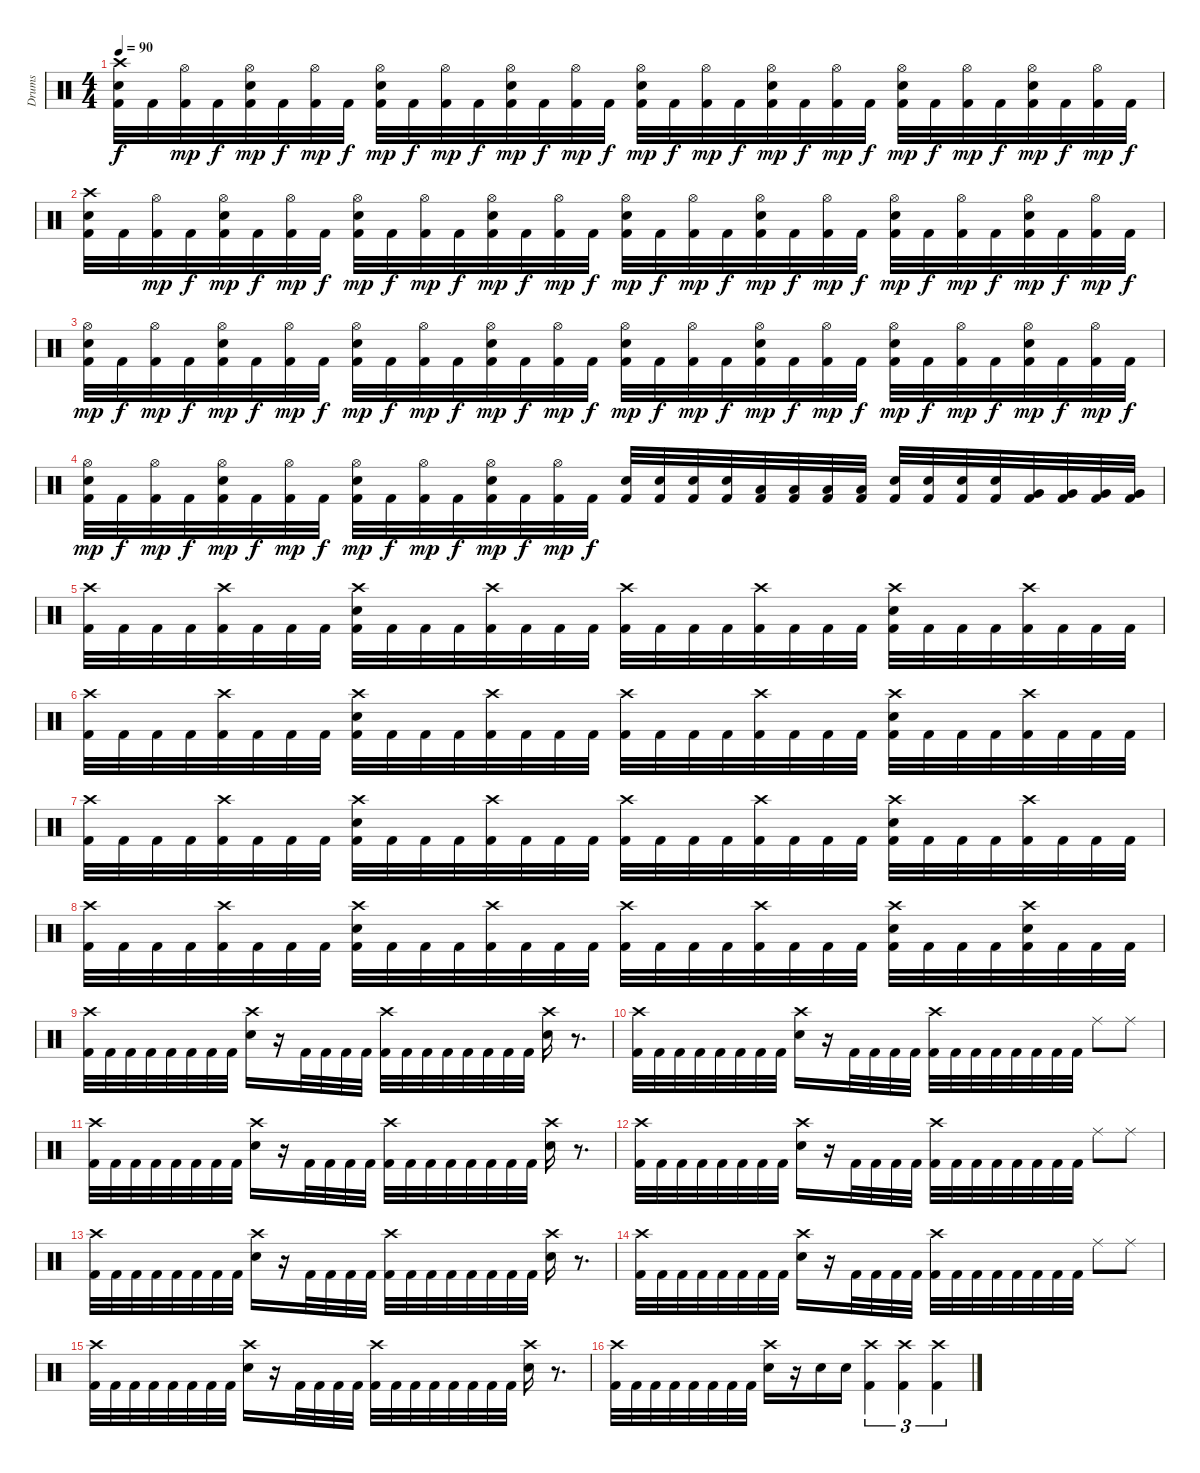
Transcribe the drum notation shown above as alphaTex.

\track ("Drums" "Drums") {instrument percussion}
\staff {score}
\articulation defaults
\ts (4 4)
\tempo 90
\clef neutral
\ks c
("Crash high (hit)" "Electric Snare (hit)" "Kick (hit) 2").32{dy f} "Kick (hit) 2".32 ("Hi-Hat (open)" "Kick (hit) 2").32{dy mp} "Kick (hit) 2".32{dy f} ("Hi-Hat (open)" "Electric Snare (hit)" "Kick (hit) 2").32{dy mp} "Kick (hit) 2".32{dy f} ("Hi-Hat (open)" "Kick (hit) 2").32{dy mp} "Kick (hit) 2".32{dy f} ("Hi-Hat (open)" "Electric Snare (hit)" "Kick (hit) 2").32{dy mp} "Kick (hit) 2".32{dy f} ("Hi-Hat (open)" "Kick (hit) 2").32{dy mp} "Kick (hit) 2".32{dy f} ("Hi-Hat (open)" "Electric Snare (hit)" "Kick (hit) 2").32{dy mp} "Kick (hit) 2".32{dy f} ("Hi-Hat (open)" "Kick (hit) 2").32{dy mp} "Kick (hit) 2".32{dy f} ("Hi-Hat (open)" "Electric Snare (hit)" "Kick (hit) 2").32{dy mp} "Kick (hit) 2".32{dy f} ("Hi-Hat (open)" "Kick (hit) 2").32{dy mp} "Kick (hit) 2".32{dy f} ("Hi-Hat (open)" "Electric Snare (hit)" "Kick (hit) 2").32{dy mp} "Kick (hit) 2".32{dy f} ("Hi-Hat (open)" "Kick (hit) 2").32{dy mp} "Kick (hit) 2".32{dy f} ("Hi-Hat (open)" "Electric Snare (hit)" "Kick (hit) 2").32{dy mp} "Kick (hit) 2".32{dy f} ("Hi-Hat (open)" "Kick (hit) 2").32{dy mp} "Kick (hit) 2".32{dy f} ("Hi-Hat (open)" "Electric Snare (hit)" "Kick (hit) 2").32{dy mp} "Kick (hit) 2".32{dy f} ("Hi-Hat (open)" "Kick (hit) 2").32{dy mp} "Kick (hit) 2".32{dy f} |
("Crash high (hit)" "Electric Snare (hit)" "Kick (hit) 2").32 "Kick (hit) 2".32 ("Hi-Hat (open)" "Kick (hit) 2").32{dy mp} "Kick (hit) 2".32{dy f} ("Hi-Hat (open)" "Electric Snare (hit)" "Kick (hit) 2").32{dy mp} "Kick (hit) 2".32{dy f} ("Hi-Hat (open)" "Kick (hit) 2").32{dy mp} "Kick (hit) 2".32{dy f} ("Hi-Hat (open)" "Electric Snare (hit)" "Kick (hit) 2").32{dy mp} "Kick (hit) 2".32{dy f} ("Hi-Hat (open)" "Kick (hit) 2").32{dy mp} "Kick (hit) 2".32{dy f} ("Hi-Hat (open)" "Electric Snare (hit)" "Kick (hit) 2").32{dy mp} "Kick (hit) 2".32{dy f} ("Hi-Hat (open)" "Kick (hit) 2").32{dy mp} "Kick (hit) 2".32{dy f} ("Hi-Hat (open)" "Electric Snare (hit)" "Kick (hit) 2").32{dy mp} "Kick (hit) 2".32{dy f} ("Hi-Hat (open)" "Kick (hit) 2").32{dy mp} "Kick (hit) 2".32{dy f} ("Hi-Hat (open)" "Electric Snare (hit)" "Kick (hit) 2").32{dy mp} "Kick (hit) 2".32{dy f} ("Hi-Hat (open)" "Kick (hit) 2").32{dy mp} "Kick (hit) 2".32{dy f} ("Hi-Hat (open)" "Electric Snare (hit)" "Kick (hit) 2").32{dy mp} "Kick (hit) 2".32{dy f} ("Hi-Hat (open)" "Kick (hit) 2").32{dy mp} "Kick (hit) 2".32{dy f} ("Hi-Hat (open)" "Electric Snare (hit)" "Kick (hit) 2").32{dy mp} "Kick (hit) 2".32{dy f} ("Hi-Hat (open)" "Kick (hit) 2").32{dy mp} "Kick (hit) 2".32{dy f} |
("Hi-Hat (open)" "Electric Snare (hit)" "Kick (hit) 2").32{dy mp} "Kick (hit) 2".32{dy f} ("Hi-Hat (open)" "Kick (hit) 2").32{dy mp} "Kick (hit) 2".32{dy f} ("Hi-Hat (open)" "Electric Snare (hit)" "Kick (hit) 2").32{dy mp} "Kick (hit) 2".32{dy f} ("Hi-Hat (open)" "Kick (hit) 2").32{dy mp} "Kick (hit) 2".32{dy f} ("Hi-Hat (open)" "Electric Snare (hit)" "Kick (hit) 2").32{dy mp} "Kick (hit) 2".32{dy f} ("Hi-Hat (open)" "Kick (hit) 2").32{dy mp} "Kick (hit) 2".32{dy f} ("Hi-Hat (open)" "Electric Snare (hit)" "Kick (hit) 2").32{dy mp} "Kick (hit) 2".32{dy f} ("Hi-Hat (open)" "Kick (hit) 2").32{dy mp} "Kick (hit) 2".32{dy f} ("Hi-Hat (open)" "Electric Snare (hit)" "Kick (hit) 2").32{dy mp} "Kick (hit) 2".32{dy f} ("Hi-Hat (open)" "Kick (hit) 2").32{dy mp} "Kick (hit) 2".32{dy f} ("Hi-Hat (open)" "Electric Snare (hit)" "Kick (hit) 2").32{dy mp} "Kick (hit) 2".32{dy f} ("Hi-Hat (open)" "Kick (hit) 2").32{dy mp} "Kick (hit) 2".32{dy f} ("Hi-Hat (open)" "Electric Snare (hit)" "Kick (hit) 2").32{dy mp} "Kick (hit) 2".32{dy f} ("Hi-Hat (open)" "Kick (hit) 2").32{dy mp} "Kick (hit) 2".32{dy f} ("Hi-Hat (open)" "Electric Snare (hit)" "Kick (hit) 2").32{dy mp} "Kick (hit) 2".32{dy f} ("Hi-Hat (open)" "Kick (hit) 2").32{dy mp} "Kick (hit) 2".32{dy f} |
("Hi-Hat (open)" "Electric Snare (hit)" "Kick (hit) 2").32{dy mp} "Kick (hit) 2".32{dy f} ("Hi-Hat (open)" "Kick (hit) 2").32{dy mp} "Kick (hit) 2".32{dy f} ("Hi-Hat (open)" "Electric Snare (hit)" "Kick (hit) 2").32{dy mp} "Kick (hit) 2".32{dy f} ("Hi-Hat (open)" "Kick (hit) 2").32{dy mp} "Kick (hit) 2".32{dy f} ("Hi-Hat (open)" "Electric Snare (hit)" "Kick (hit) 2").32{dy mp} "Kick (hit) 2".32{dy f} ("Hi-Hat (open)" "Kick (hit) 2").32{dy mp} "Kick (hit) 2".32{dy f} ("Hi-Hat (open)" "Electric Snare (hit)" "Kick (hit) 2").32{dy mp} "Kick (hit) 2".32{dy f} ("Hi-Hat (open)" "Kick (hit) 2").32{dy mp} "Kick (hit) 2".32{dy f} ("Electric Snare (hit)" "Kick (hit) 2").32 ("Electric Snare (hit)" "Kick (hit) 2").32 ("Electric Snare (hit)" "Kick (hit) 2").32 ("Electric Snare (hit)" "Kick (hit) 2").32 ("Low Tom (hit)" "Kick (hit) 2").32 ("Low Tom (hit)" "Kick (hit) 2").32 ("Low Tom (hit)" "Kick (hit) 2").32 ("Low Tom (hit)" "Kick (hit) 2").32 ("Electric Snare (hit)" "Kick (hit) 2").32 ("Electric Snare (hit)" "Kick (hit) 2").32 ("Electric Snare (hit)" "Kick (hit) 2").32 ("Electric Snare (hit)" "Kick (hit) 2").32 ("Very Low Tom (hit)" "Kick (hit) 2").32 ("Very Low Tom (hit)" "Kick (hit) 2").32 ("Very Low Tom (hit)" "Kick (hit) 2").32 ("Very Low Tom (hit)" "Kick (hit) 2").32 |
("Crash high (hit)" "Kick (hit) 2").32 "Kick (hit) 2".32 "Kick (hit) 2".32 "Kick (hit) 2".32 ("Crash high (hit)" "Kick (hit) 2").32 "Kick (hit) 2".32 "Kick (hit) 2".32 "Kick (hit) 2".32 ("Crash high (hit)" "Electric Snare (hit)" "Kick (hit) 2").32 "Kick (hit) 2".32 "Kick (hit) 2".32 "Kick (hit) 2".32 ("Crash high (hit)" "Kick (hit) 2").32 "Kick (hit) 2".32 "Kick (hit) 2".32 "Kick (hit) 2".32 ("Crash high (hit)" "Kick (hit) 2").32 "Kick (hit) 2".32 "Kick (hit) 2".32 "Kick (hit) 2".32 ("Crash high (hit)" "Kick (hit) 2").32 "Kick (hit) 2".32 "Kick (hit) 2".32 "Kick (hit) 2".32 ("Crash high (hit)" "Electric Snare (hit)" "Kick (hit) 2").32 "Kick (hit) 2".32 "Kick (hit) 2".32 "Kick (hit) 2".32 ("Crash high (hit)" "Kick (hit) 2").32 "Kick (hit) 2".32 "Kick (hit) 2".32 "Kick (hit) 2".32 |
("Crash high (hit)" "Kick (hit) 2").32 "Kick (hit) 2".32 "Kick (hit) 2".32 "Kick (hit) 2".32 ("Crash high (hit)" "Kick (hit) 2").32 "Kick (hit) 2".32 "Kick (hit) 2".32 "Kick (hit) 2".32 ("Crash high (hit)" "Electric Snare (hit)" "Kick (hit) 2").32 "Kick (hit) 2".32 "Kick (hit) 2".32 "Kick (hit) 2".32 ("Crash high (hit)" "Kick (hit) 2").32 "Kick (hit) 2".32 "Kick (hit) 2".32 "Kick (hit) 2".32 ("Crash high (hit)" "Kick (hit) 2").32 "Kick (hit) 2".32 "Kick (hit) 2".32 "Kick (hit) 2".32 ("Crash high (hit)" "Kick (hit) 2").32 "Kick (hit) 2".32 "Kick (hit) 2".32 "Kick (hit) 2".32 ("Crash high (hit)" "Electric Snare (hit)" "Kick (hit) 2").32 "Kick (hit) 2".32 "Kick (hit) 2".32 "Kick (hit) 2".32 ("Crash high (hit)" "Kick (hit) 2").32 "Kick (hit) 2".32 "Kick (hit) 2".32 "Kick (hit) 2".32 |
("Crash high (hit)" "Kick (hit) 2").32 "Kick (hit) 2".32 "Kick (hit) 2".32 "Kick (hit) 2".32 ("Crash high (hit)" "Kick (hit) 2").32 "Kick (hit) 2".32 "Kick (hit) 2".32 "Kick (hit) 2".32 ("Crash high (hit)" "Electric Snare (hit)" "Kick (hit) 2").32 "Kick (hit) 2".32 "Kick (hit) 2".32 "Kick (hit) 2".32 ("Crash high (hit)" "Kick (hit) 2").32 "Kick (hit) 2".32 "Kick (hit) 2".32 "Kick (hit) 2".32 ("Crash high (hit)" "Kick (hit) 2").32 "Kick (hit) 2".32 "Kick (hit) 2".32 "Kick (hit) 2".32 ("Crash high (hit)" "Kick (hit) 2").32 "Kick (hit) 2".32 "Kick (hit) 2".32 "Kick (hit) 2".32 ("Crash high (hit)" "Electric Snare (hit)" "Kick (hit) 2").32 "Kick (hit) 2".32 "Kick (hit) 2".32 "Kick (hit) 2".32 ("Crash high (hit)" "Kick (hit) 2").32 "Kick (hit) 2".32 "Kick (hit) 2".32 "Kick (hit) 2".32 |
("Crash high (hit)" "Kick (hit) 2").32 "Kick (hit) 2".32 "Kick (hit) 2".32 "Kick (hit) 2".32 ("Crash high (hit)" "Kick (hit) 2").32 "Kick (hit) 2".32 "Kick (hit) 2".32 "Kick (hit) 2".32 ("Crash high (hit)" "Electric Snare (hit)" "Kick (hit) 2").32 "Kick (hit) 2".32 "Kick (hit) 2".32 "Kick (hit) 2".32 ("Crash high (hit)" "Kick (hit) 2").32 "Kick (hit) 2".32 "Kick (hit) 2".32 "Kick (hit) 2".32 ("Crash high (hit)" "Kick (hit) 2").32 "Kick (hit) 2".32 "Kick (hit) 2".32 "Kick (hit) 2".32 ("Crash high (hit)" "Kick (hit) 2").32 "Kick (hit) 2".32 "Kick (hit) 2".32 "Kick (hit) 2".32 ("Crash high (hit)" "Electric Snare (hit)" "Kick (hit) 2").32 "Kick (hit) 2".32 "Kick (hit) 2".32 "Kick (hit) 2".32 ("Crash high (hit)" "Electric Snare (hit)" "Kick (hit) 2").32 "Kick (hit) 2".32 "Kick (hit) 2".32 "Kick (hit) 2".32 |
("Crash high (hit)" "Kick (hit) 2").32 "Kick (hit) 2".32 "Kick (hit) 2".32 "Kick (hit) 2".32 "Kick (hit) 2".32 "Kick (hit) 2".32 "Kick (hit) 2".32 "Kick (hit) 2".32 ("Crash high (hit)" "Electric Snare (hit)").16 r.16 "Kick (hit) 2".32 "Kick (hit) 2".32 "Kick (hit) 2".32 "Kick (hit) 2".32 ("Crash high (hit)" "Kick (hit) 2").32 "Kick (hit) 2".32 "Kick (hit) 2".32 "Kick (hit) 2".32 "Kick (hit) 2".32 "Kick (hit) 2".32 "Kick (hit) 2".32 "Kick (hit) 2".32 ("Crash high (hit)" "Electric Snare (hit)").16 r.8{d} |
("Crash high (hit)" "Kick (hit) 2").32 "Kick (hit) 2".32 "Kick (hit) 2".32 "Kick (hit) 2".32 "Kick (hit) 2".32 "Kick (hit) 2".32 "Kick (hit) 2".32 "Kick (hit) 2".32 ("Crash high (hit)" "Electric Snare (hit)").16 r.16 "Kick (hit) 2".32 "Kick (hit) 2".32 "Kick (hit) 2".32 "Kick (hit) 2".32 ("Crash high (hit)" "Kick (hit) 2").32 "Kick (hit) 2".32 "Kick (hit) 2".32 "Kick (hit) 2".32 "Kick (hit) 2".32 "Kick (hit) 2".32 "Kick (hit) 2".32 "Kick (hit) 2".32 "Ride (middle)".8 "Ride (middle)".8 |
("Crash high (hit)" "Kick (hit) 2").32 "Kick (hit) 2".32 "Kick (hit) 2".32 "Kick (hit) 2".32 "Kick (hit) 2".32 "Kick (hit) 2".32 "Kick (hit) 2".32 "Kick (hit) 2".32 ("Crash high (hit)" "Electric Snare (hit)").16 r.16 "Kick (hit) 2".32 "Kick (hit) 2".32 "Kick (hit) 2".32 "Kick (hit) 2".32 ("Crash high (hit)" "Kick (hit) 2").32 "Kick (hit) 2".32 "Kick (hit) 2".32 "Kick (hit) 2".32 "Kick (hit) 2".32 "Kick (hit) 2".32 "Kick (hit) 2".32 "Kick (hit) 2".32 ("Crash high (hit)" "Electric Snare (hit)").16 r.8{d} |
("Crash high (hit)" "Kick (hit) 2").32 "Kick (hit) 2".32 "Kick (hit) 2".32 "Kick (hit) 2".32 "Kick (hit) 2".32 "Kick (hit) 2".32 "Kick (hit) 2".32 "Kick (hit) 2".32 ("Crash high (hit)" "Electric Snare (hit)").16 r.16 "Kick (hit) 2".32 "Kick (hit) 2".32 "Kick (hit) 2".32 "Kick (hit) 2".32 ("Crash high (hit)" "Kick (hit) 2").32 "Kick (hit) 2".32 "Kick (hit) 2".32 "Kick (hit) 2".32 "Kick (hit) 2".32 "Kick (hit) 2".32 "Kick (hit) 2".32 "Kick (hit) 2".32 "Ride (middle)".8 "Ride (middle)".8 |
("Crash high (hit)" "Kick (hit) 2").32 "Kick (hit) 2".32 "Kick (hit) 2".32 "Kick (hit) 2".32 "Kick (hit) 2".32 "Kick (hit) 2".32 "Kick (hit) 2".32 "Kick (hit) 2".32 ("Crash high (hit)" "Electric Snare (hit)").16 r.16 "Kick (hit) 2".32 "Kick (hit) 2".32 "Kick (hit) 2".32 "Kick (hit) 2".32 ("Crash high (hit)" "Kick (hit) 2").32 "Kick (hit) 2".32 "Kick (hit) 2".32 "Kick (hit) 2".32 "Kick (hit) 2".32 "Kick (hit) 2".32 "Kick (hit) 2".32 "Kick (hit) 2".32 ("Crash high (hit)" "Electric Snare (hit)").16 r.8{d} |
("Crash high (hit)" "Kick (hit) 2").32 "Kick (hit) 2".32 "Kick (hit) 2".32 "Kick (hit) 2".32 "Kick (hit) 2".32 "Kick (hit) 2".32 "Kick (hit) 2".32 "Kick (hit) 2".32 ("Crash high (hit)" "Electric Snare (hit)").16 r.16 "Kick (hit) 2".32 "Kick (hit) 2".32 "Kick (hit) 2".32 "Kick (hit) 2".32 ("Crash high (hit)" "Kick (hit) 2").32 "Kick (hit) 2".32 "Kick (hit) 2".32 "Kick (hit) 2".32 "Kick (hit) 2".32 "Kick (hit) 2".32 "Kick (hit) 2".32 "Kick (hit) 2".32 "Ride (middle)".8 "Ride (middle)".8 |
("Crash high (hit)" "Kick (hit) 2").32 "Kick (hit) 2".32 "Kick (hit) 2".32 "Kick (hit) 2".32 "Kick (hit) 2".32 "Kick (hit) 2".32 "Kick (hit) 2".32 "Kick (hit) 2".32 ("Crash high (hit)" "Electric Snare (hit)").16 r.16 "Kick (hit) 2".32 "Kick (hit) 2".32 "Kick (hit) 2".32 "Kick (hit) 2".32 ("Crash high (hit)" "Kick (hit) 2").32 "Kick (hit) 2".32 "Kick (hit) 2".32 "Kick (hit) 2".32 "Kick (hit) 2".32 "Kick (hit) 2".32 "Kick (hit) 2".32 "Kick (hit) 2".32 ("Crash high (hit)" "Electric Snare (hit)").16 r.8{d} |
("Crash high (hit)" "Kick (hit) 2").32 "Kick (hit) 2".32 "Kick (hit) 2".32 "Kick (hit) 2".32 "Kick (hit) 2".32 "Kick (hit) 2".32 "Kick (hit) 2".32 "Kick (hit) 2".32 ("Crash high (hit)" "Electric Snare (hit)").16 r.16 "Electric Snare (hit)".16 "Electric Snare (hit)".16 ("Crash high (hit)" "Kick (hit) 2").4{tu (3 2)} ("Crash high (hit)" "Kick (hit) 2").4{tu (3 2)} ("Crash high (hit)" "Kick (hit) 2").4{tu (3 2)}
